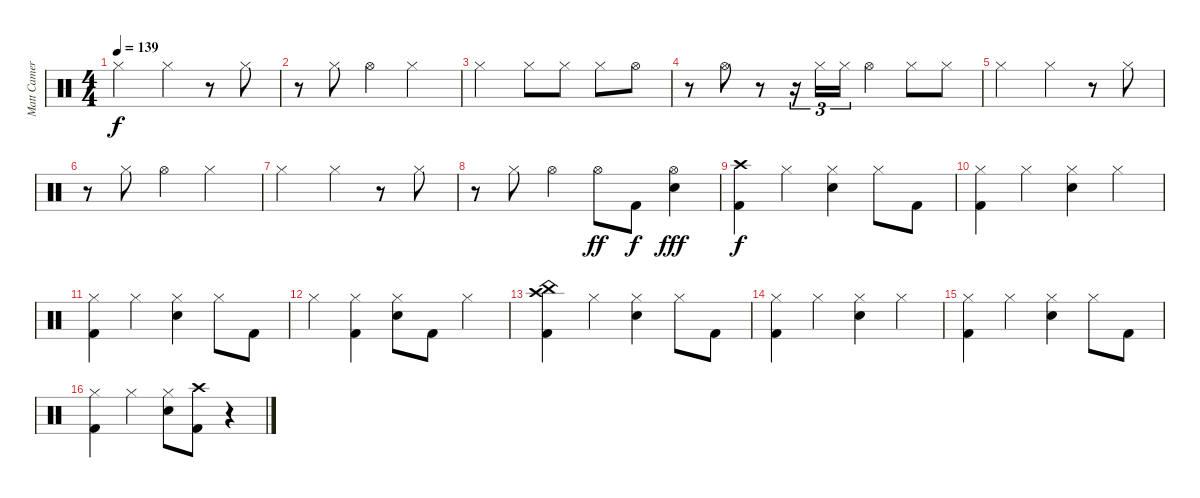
\track ("Matt Cameron" "Matt Camer") {instrument percussion}
\staff {score}
\articulation defaults
\ts (4 4)
\tempo 139
\clef neutral
\ks c "Hi-Hat (closed)".2{dy f} "Hi-Hat (closed)".4
r.8 "Hi-Hat (closed)".8 |
r.8 "Hi-Hat (closed)".8 "Hi-Hat (open)".4 "Hi-Hat (closed)".2 |
"Hi-Hat (closed)".2 "Hi-Hat (closed)".8 "Hi-Hat (closed)".8 "Hi-Hat (closed)".8 "Hi-Hat (open)".8 |
r.8 "Hi-Hat (open)".8 r.8 r.16{tu (3 2)} "Hi-Hat (closed)".16{tu (3 2)} "Hi-Hat (closed)".16{tu (3 2)} "Hi-Hat (open)".4 "Hi-Hat (closed)".8 "Hi-Hat (closed)".8 |
"Hi-Hat (closed)".2 "Hi-Hat (closed)".4 r.8 "Hi-Hat (closed)".8 |
r.8 "Hi-Hat (closed)".8 "Hi-Hat (open)".4 "Hi-Hat (closed)".2 |
"Hi-Hat (closed)".2 "Hi-Hat (closed)".4 r.8 "Hi-Hat (closed)".8 |
r.8 "Hi-Hat (closed)".8 "Hi-Hat (open)".4 "Hi-Hat (open)".8{dy ff} "Kick (hit) 2".8{dy f} ("Hi-Hat (open)" "Snare (hit) 2").4{dy fff} |
("Crash high (hit)" "Kick (hit) 2").4{dy f} "Hi-Hat (closed)".4 ("Hi-Hat (closed)" "Snare (hit) 2").4 "Hi-Hat (closed)".8 "Kick (hit) 2".8 |
("Hi-Hat (closed)" "Kick (hit) 2").4 "Hi-Hat (closed)".4 ("Hi-Hat (closed)" "Snare (hit) 2").4 "Hi-Hat (closed)".4 |
("Hi-Hat (closed)" "Kick (hit) 2").4 "Hi-Hat (closed)".4 ("Hi-Hat (closed)" "Snare (hit) 2").4 "Hi-Hat (closed)".8 "Kick (hit) 2".8 |
"Hi-Hat (closed)".4 ("Hi-Hat (closed)" "Kick (hit) 2").4 ("Hi-Hat (closed)" "Snare (hit) 2").8 "Kick (hit) 2".8 "Hi-Hat (closed)".4 |
("Crash high (hit)" "China (hit)" "Kick (hit) 2").4 "Hi-Hat (closed)".4 ("Hi-Hat (closed)" "Snare (hit) 2").4 "Hi-Hat (closed)".8 "Kick (hit) 2".8 |
("Hi-Hat (closed)" "Kick (hit) 2").4 "Hi-Hat (closed)".4 ("Hi-Hat (closed)" "Snare (hit) 2").4 "Hi-Hat (closed)".4 |
("Hi-Hat (closed)" "Kick (hit) 2").4 "Hi-Hat (closed)".4 ("Hi-Hat (closed)" "Snare (hit) 2").4 "Hi-Hat (closed)".8 "Kick (hit) 2".8 |
("Hi-Hat (closed)" "Kick (hit) 2").4 "Hi-Hat (closed)".4 ("Hi-Hat (closed)" "Snare (hit) 2").8 ("Crash high (hit)" "Kick (hit) 2").8 r.4
